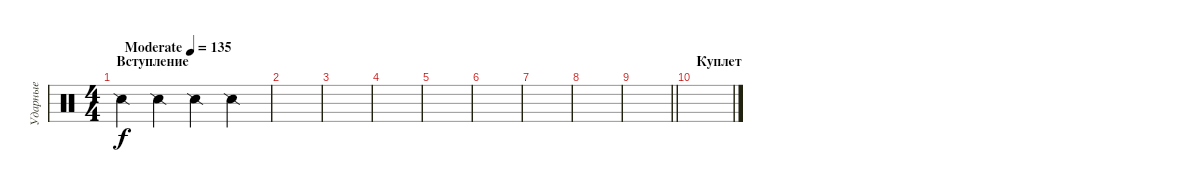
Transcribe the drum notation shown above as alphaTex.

\track ("Ударные" "Ударные") {instrument percussion}
\staff {score}
\articulation defaults
\ts (4 4)
\section ("" "Вступление")
\tempo (135 "Moderate")
\clef neutral
\ks c "Snare (side stick) 2".4{dy f} "Snare (side stick) 2".4 "Snare (side stick) 2".4 "Snare (side stick) 2".4
|
|
|
|
|
|
|
|
\barLineRight lightlight
|
\section ("" "Куплет")
